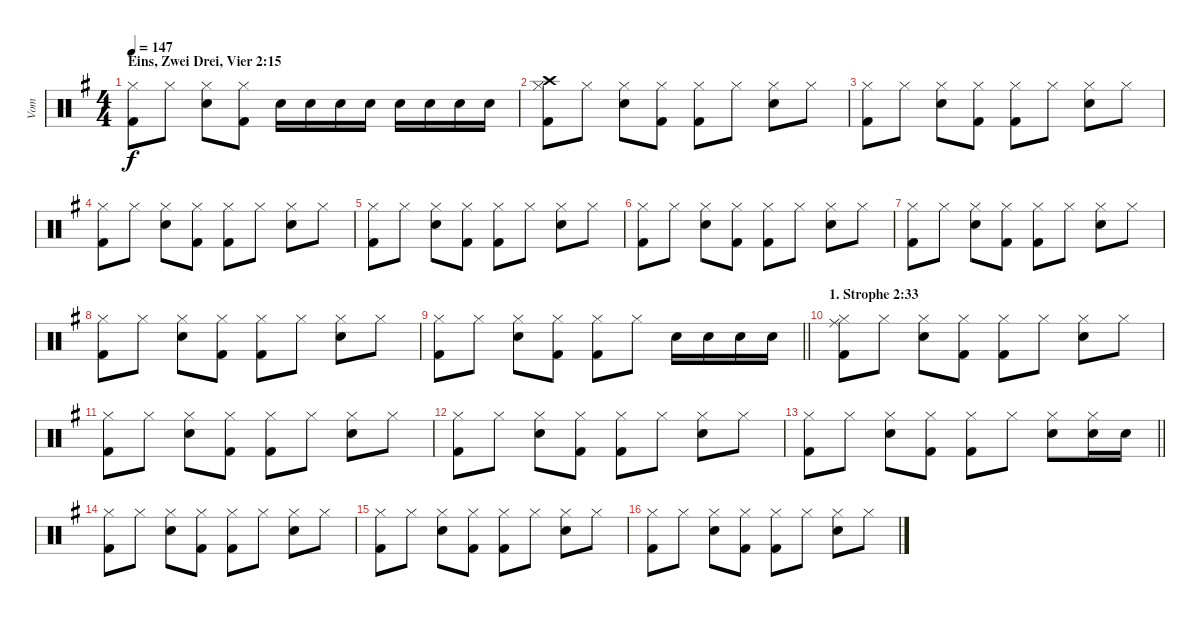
\track ("Vom" "Vom") {instrument percussion}
\staff {score}
\articulation defaults
\ts (4 4)
\section ("" "Eins, Zwei Drei, Vier 2:15")
\tempo 147
\clef neutral
\ks g
("Hi-Hat (closed)" "Kick (hit) 2").8{dy f} "Hi-Hat (closed)".8 ("Hi-Hat (closed)" "Snare (hit) 2").8 ("Hi-Hat (closed)" "Kick (hit) 2").8 "Snare (hit) 2".16 "Snare (hit) 2".16 "Snare (hit) 2".16 "Snare (hit) 2".16 "Snare (hit) 2".16 "Snare (hit) 2".16 "Snare (hit) 2".16 "Snare (hit) 2".16 |
("Crash high (hit)" "Hi-Hat (closed)" "Kick (hit) 2").8 "Hi-Hat (closed)".8 ("Hi-Hat (closed)" "Snare (hit) 2").8 ("Hi-Hat (closed)" "Kick (hit) 2").8 ("Hi-Hat (closed)" "Kick (hit) 2").8 "Hi-Hat (closed)".8 ("Hi-Hat (closed)" "Snare (hit) 2").8 "Hi-Hat (closed)".8 |
("Hi-Hat (closed)" "Kick (hit) 2").8 "Hi-Hat (closed)".8 ("Hi-Hat (closed)" "Snare (hit) 2").8 ("Hi-Hat (closed)" "Kick (hit) 2").8 ("Hi-Hat (closed)" "Kick (hit) 2").8 "Hi-Hat (closed)".8 ("Hi-Hat (closed)" "Snare (hit) 2").8 "Hi-Hat (closed)".8 |
("Hi-Hat (closed)" "Kick (hit) 2").8 "Hi-Hat (closed)".8 ("Hi-Hat (closed)" "Snare (hit) 2").8 ("Hi-Hat (closed)" "Kick (hit) 2").8 ("Hi-Hat (closed)" "Kick (hit) 2").8 "Hi-Hat (closed)".8 ("Hi-Hat (closed)" "Snare (hit) 2").8 "Hi-Hat (closed)".8 |
("Hi-Hat (closed)" "Kick (hit) 2").8 "Hi-Hat (closed)".8 ("Hi-Hat (closed)" "Snare (hit) 2").8 ("Hi-Hat (closed)" "Kick (hit) 2").8 ("Hi-Hat (closed)" "Kick (hit) 2").8 "Hi-Hat (closed)".8 ("Hi-Hat (closed)" "Snare (hit) 2").8 "Hi-Hat (closed)".8 |
("Hi-Hat (closed)" "Kick (hit) 2").8 "Hi-Hat (closed)".8 ("Hi-Hat (closed)" "Snare (hit) 2").8 ("Hi-Hat (closed)" "Kick (hit) 2").8 ("Hi-Hat (closed)" "Kick (hit) 2").8 "Hi-Hat (closed)".8 ("Hi-Hat (closed)" "Snare (hit) 2").8 "Hi-Hat (closed)".8 |
("Hi-Hat (closed)" "Kick (hit) 2").8 "Hi-Hat (closed)".8 ("Hi-Hat (closed)" "Snare (hit) 2").8 ("Hi-Hat (closed)" "Kick (hit) 2").8 ("Hi-Hat (closed)" "Kick (hit) 2").8 "Hi-Hat (closed)".8 ("Hi-Hat (closed)" "Snare (hit) 2").8 "Hi-Hat (closed)".8 |
("Hi-Hat (closed)" "Kick (hit) 2").8 "Hi-Hat (closed)".8 ("Hi-Hat (closed)" "Snare (hit) 2").8 ("Hi-Hat (closed)" "Kick (hit) 2").8 ("Hi-Hat (closed)" "Kick (hit) 2").8 "Hi-Hat (closed)".8 ("Hi-Hat (closed)" "Snare (hit) 2").8 "Hi-Hat (closed)".8 |
\barLineRight lightlight
("Hi-Hat (closed)" "Kick (hit) 2").8 "Hi-Hat (closed)".8 ("Hi-Hat (closed)" "Snare (hit) 2").8 ("Hi-Hat (closed)" "Kick (hit) 2").8 ("Hi-Hat (closed)" "Kick (hit) 2").8 "Hi-Hat (closed)".8 "Snare (hit) 2".16 "Snare (hit) 2".16 "Snare (hit) 2".16 "Snare (hit) 2".16 |
\section ("" "1. Strophe 2:33")
("Ride (middle)" "Hi-Hat (closed)" "Kick (hit) 2").8 "Hi-Hat (closed)".8 ("Hi-Hat (closed)" "Snare (hit) 2").8 ("Hi-Hat (closed)" "Kick (hit) 2").8 ("Hi-Hat (closed)" "Kick (hit) 2").8 "Hi-Hat (closed)".8 ("Hi-Hat (closed)" "Snare (hit) 2").8 "Hi-Hat (closed)".8 |
("Hi-Hat (closed)" "Kick (hit) 2").8 "Hi-Hat (closed)".8 ("Hi-Hat (closed)" "Snare (hit) 2").8 ("Hi-Hat (closed)" "Kick (hit) 2").8 ("Hi-Hat (closed)" "Kick (hit) 2").8 "Hi-Hat (closed)".8 ("Hi-Hat (closed)" "Snare (hit) 2").8 "Hi-Hat (closed)".8 |
("Hi-Hat (closed)" "Kick (hit) 2").8 "Hi-Hat (closed)".8 ("Hi-Hat (closed)" "Snare (hit) 2").8 ("Hi-Hat (closed)" "Kick (hit) 2").8 ("Hi-Hat (closed)" "Kick (hit) 2").8 "Hi-Hat (closed)".8 ("Hi-Hat (closed)" "Snare (hit) 2").8 "Hi-Hat (closed)".8 |
\barLineRight lightlight
("Hi-Hat (closed)" "Kick (hit) 2").8 "Hi-Hat (closed)".8 ("Hi-Hat (closed)" "Snare (hit) 2").8 ("Hi-Hat (closed)" "Kick (hit) 2").8 ("Hi-Hat (closed)" "Kick (hit) 2").8 "Hi-Hat (closed)".8 ("Hi-Hat (closed)" "Snare (hit) 2").8 ("Hi-Hat (closed)" "Snare (hit) 2").16 "Snare (hit) 2".16 |
("Hi-Hat (closed)" "Kick (hit) 2").8 "Hi-Hat (closed)".8 ("Hi-Hat (closed)" "Snare (hit) 2").8 ("Hi-Hat (closed)" "Kick (hit) 2").8 ("Hi-Hat (closed)" "Kick (hit) 2").8 "Hi-Hat (closed)".8 ("Hi-Hat (closed)" "Snare (hit) 2").8 "Hi-Hat (closed)".8 |
("Hi-Hat (closed)" "Kick (hit) 2").8 "Hi-Hat (closed)".8 ("Hi-Hat (closed)" "Snare (hit) 2").8 ("Hi-Hat (closed)" "Kick (hit) 2").8 ("Hi-Hat (closed)" "Kick (hit) 2").8 "Hi-Hat (closed)".8 ("Hi-Hat (closed)" "Snare (hit) 2").8 "Hi-Hat (closed)".8 |
("Hi-Hat (closed)" "Kick (hit) 2").8 "Hi-Hat (closed)".8 ("Hi-Hat (closed)" "Snare (hit) 2").8 ("Hi-Hat (closed)" "Kick (hit) 2").8 ("Hi-Hat (closed)" "Kick (hit) 2").8 "Hi-Hat (closed)".8 ("Hi-Hat (closed)" "Snare (hit) 2").8 "Hi-Hat (closed)".8
